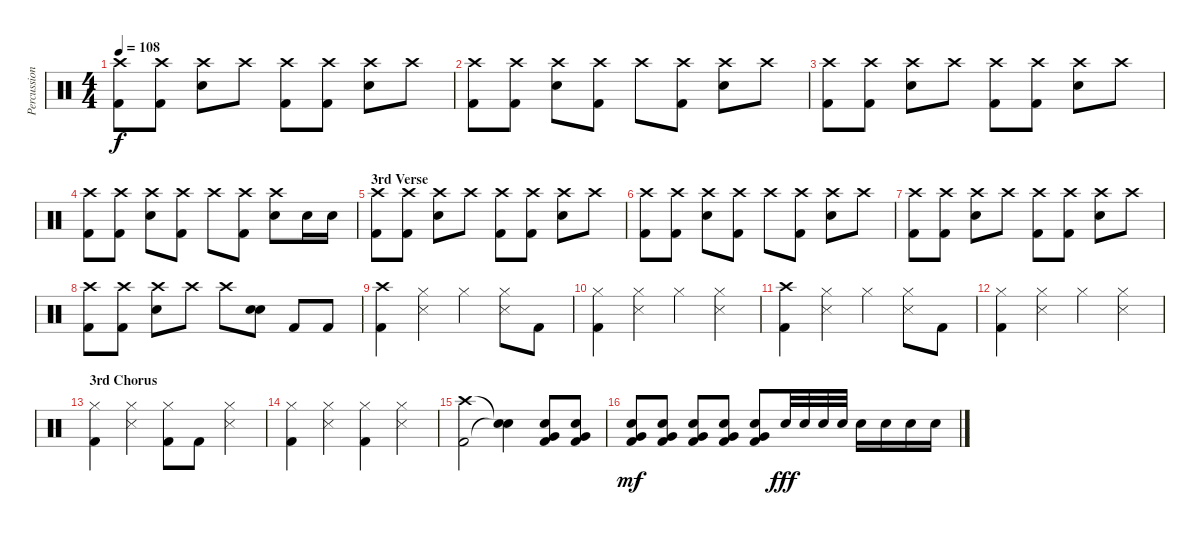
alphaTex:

\track ("Percussion" "Percussion") {instrument percussion}
\staff {score}
\articulation defaults
\ts (4 4)
\tempo 108
\clef neutral
\ks c
("Crash high (hit)" "Kick (hit) 2").8{dy f} ("Crash high (hit)" "Kick (hit) 2").8 ("Crash high (hit)" "Snare (hit) 2").8 "Crash high (hit)".8 ("Crash high (hit)" "Kick (hit) 2").8 ("Crash high (hit)" "Kick (hit) 2").8 ("Crash high (hit)" "Snare (hit) 2").8 "Crash high (hit)".8 |
("Crash high (hit)" "Kick (hit) 2").8 ("Crash high (hit)" "Kick (hit) 2").8 ("Crash high (hit)" "Snare (hit) 2").8 ("Crash high (hit)" "Kick (hit) 2").8 "Crash high (hit)".8 ("Crash high (hit)" "Kick (hit) 2").8 ("Crash high (hit)" "Snare (hit) 2").8 "Crash high (hit)".8 |
("Crash high (hit)" "Kick (hit) 2").8 ("Crash high (hit)" "Kick (hit) 2").8 ("Crash high (hit)" "Snare (hit) 2").8 "Crash high (hit)".8 ("Crash high (hit)" "Kick (hit) 2").8 ("Crash high (hit)" "Kick (hit) 2").8 ("Crash high (hit)" "Snare (hit) 2").8 "Crash high (hit)".8 |
("Crash high (hit)" "Kick (hit) 2").8 ("Crash high (hit)" "Kick (hit) 2").8 ("Crash high (hit)" "Snare (hit) 2").8 ("Crash high (hit)" "Kick (hit) 2").8 "Crash high (hit)".8 ("Crash high (hit)" "Kick (hit) 2").8 ("Crash high (hit)" "Snare (hit) 2").8 "Snare (hit) 2".16 "Snare (hit) 2".16 |
\section ("" "3rd Verse")
("Crash high (hit)" "Kick (hit) 2").8 ("Crash high (hit)" "Kick (hit) 2").8 ("Crash high (hit)" "Snare (hit) 2").8 "Crash high (hit)".8 ("Crash high (hit)" "Kick (hit) 2").8 ("Crash high (hit)" "Kick (hit) 2").8 ("Crash high (hit)" "Snare (hit) 2").8 "Crash high (hit)".8 |
("Crash high (hit)" "Kick (hit) 2").8 ("Crash high (hit)" "Kick (hit) 2").8 ("Crash high (hit)" "Snare (hit) 2").8 ("Crash high (hit)" "Kick (hit) 2").8 "Crash high (hit)".8 ("Crash high (hit)" "Kick (hit) 2").8 ("Crash high (hit)" "Snare (hit) 2").8 "Crash high (hit)".8 |
("Crash high (hit)" "Kick (hit) 2").8 ("Crash high (hit)" "Kick (hit) 2").8 ("Crash high (hit)" "Snare (hit) 2").8 "Crash high (hit)".8 ("Crash high (hit)" "Kick (hit) 2").8 ("Crash high (hit)" "Kick (hit) 2").8 ("Crash high (hit)" "Snare (hit) 2").8 "Crash high (hit)".8 |
("Crash high (hit)" "Kick (hit) 2").8 ("Crash high (hit)" "Kick (hit) 2").8 ("Crash high (hit)" "Snare (hit) 2").8 "Crash high (hit)".8 "Crash high (hit)".8 ("Snare (hit) 2" "Snare (hit) 2").8 "Kick (hit) 2".8 "Kick (hit) 2".8 |
("Crash high (hit)" "Kick (hit) 2").4 ("Hi-Hat (closed)" "Snare (side stick) 3").4 "Hi-Hat (closed)".4 ("Hi-Hat (closed)" "Snare (side stick) 3").8 "Kick (hit) 2".8 |
("Hi-Hat (closed)" "Kick (hit) 2").4 ("Hi-Hat (closed)" "Snare (side stick) 3").4 "Hi-Hat (closed)".4 ("Hi-Hat (closed)" "Snare (side stick) 3").4 |
("Crash high (hit)" "Kick (hit) 2").4 ("Hi-Hat (closed)" "Snare (side stick) 3").4 "Hi-Hat (closed)".4 ("Hi-Hat (closed)" "Snare (side stick) 3").8 "Kick (hit) 2".8 |
("Hi-Hat (closed)" "Kick (hit) 2").4 ("Hi-Hat (closed)" "Snare (side stick) 3").4 "Hi-Hat (closed)".4 ("Hi-Hat (closed)" "Snare (side stick) 3").4 |
\section ("" "3rd Chorus")
("Hi-Hat (closed)" "Kick (hit) 2").4 ("Hi-Hat (closed)" "Snare (side stick) 3").4 ("Hi-Hat (closed)" "Kick (hit) 2").8 "Kick (hit) 2".8 ("Hi-Hat (closed)" "Snare (side stick) 3").4 |
("Hi-Hat (closed)" "Kick (hit) 2").4 ("Hi-Hat (closed)" "Snare (side stick) 3").4 ("Hi-Hat (closed)" "Kick (hit) 2").4 ("Hi-Hat (closed)" "Snare (side stick) 3").4 |
("Crash high (hit)" "Kick (hit) 2").2 ("Snare (hit)"{t} "Snare (hit)"{t}).4 ("Very Low Tom (hit)" "Snare (hit) 2" "Kick (hit) 2").8 ("Very Low Tom (hit)" "Snare (hit) 2" "Kick (hit) 2").8 |
("Very Low Tom (hit)" "Snare (hit) 2" "Kick (hit) 2").8{dy mf} ("Very Low Tom (hit)" "Snare (hit) 2" "Kick (hit) 2").8 ("Very Low Tom (hit)" "Snare (hit) 2" "Kick (hit) 2").8 ("Very Low Tom (hit)" "Snare (hit) 2" "Kick (hit) 2").8 ("Very Low Tom (hit)" "Snare (hit) 2" "Kick (hit) 2").8 "Snare (hit) 2".32{dy fff} "Snare (hit) 2".32 "Snare (hit) 2".32 "Snare (hit) 2".32 "Snare (hit) 2".16 "Snare (hit) 2".16 "Snare (hit) 2".16 "Snare (hit) 2".16
